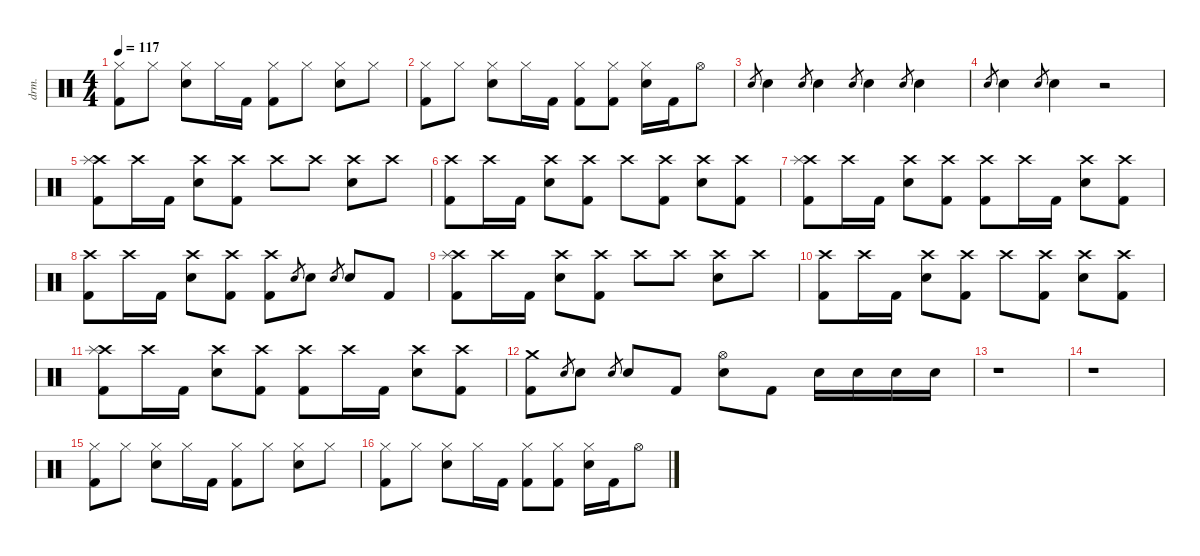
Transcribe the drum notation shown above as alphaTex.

\defaultSystemsLayout 4
\hideDynamics
\bracketExtendMode nobrackets
\track ("Drums" "drm.") {instrument percussion}
\staff {score}
\articulation defaults
\ts (4 4)
\tempo 117
\clef neutral
\ks c
("Hi-Hat (closed)" "Kick (hit) 2").8{dy mf beam Down} "Hi-Hat (closed)".8{beam Down} ("Hi-Hat (closed)" "Snare (hit) 2").8{beam Down} "Hi-Hat (closed)".16{beam Down} "Kick (hit) 2".16{beam Down} ("Hi-Hat (closed)" "Kick (hit) 2").8{beam Down} "Hi-Hat (closed)".8{beam Down} ("Hi-Hat (closed)" "Snare (hit) 2").8{beam Down} "Hi-Hat (closed)".8{beam Down} |
("Hi-Hat (closed)" "Kick (hit) 2").8{beam Down} "Hi-Hat (closed)".8{beam Down} ("Hi-Hat (closed)" "Snare (hit) 2").8{beam Down} "Hi-Hat (closed)".16{beam Down} "Kick (hit) 2".16{beam Down} ("Hi-Hat (closed)" "Kick (hit) 2").8{beam Down} ("Hi-Hat (closed)" "Kick (hit) 2").8{beam Down} ("Hi-Hat (closed)" "Snare (hit) 2").16{beam Down} "Kick (hit) 2".16{beam Down} "Hi-Hat (open)".8{beam Down} |
"Snare (hit) 2".8{gr beam Up} "Snare (hit) 2".4{beam Down} "Snare (hit) 2".8{gr beam Up} "Snare (hit) 2".4{beam Down} "Snare (hit) 2".8{gr beam Up} "Snare (hit) 2".4{beam Down} "Snare (hit) 2".8{gr beam Up} "Snare (hit) 2".4{beam Down} |
"Snare (hit) 2".8{gr beam Up} "Snare (hit) 2".4{beam Down} "Snare (hit) 2".8{gr beam Up} "Snare (hit) 2".4{beam Down} r.2{beam Down} |
("Kick (hit) 2" "Crash high (hit)" "Splash (hit)").8{beam Down} "Crash high (hit)".16{beam Down} "Kick (hit) 2".16{beam Down} ("Snare (hit) 2" "Crash high (hit)").8{beam Down} ("Kick (hit) 2" "Crash high (hit)").8{beam Down} "Crash high (hit)".8{beam Down} "Crash high (hit)".8{beam Down} ("Snare (hit) 2" "Crash high (hit)").8{beam Down} "Crash high (hit)".8{beam Down} |
("Kick (hit) 2" "Crash high (hit)").8{beam Down} "Crash high (hit)".16{beam Down} "Kick (hit) 2".16{beam Down} ("Snare (hit) 2" "Crash high (hit)").8{beam Down} ("Kick (hit) 2" "Crash high (hit)").8{beam Down} "Crash high (hit)".8{beam Down} ("Kick (hit) 2" "Crash high (hit)").8{beam Down} ("Snare (hit) 2" "Crash high (hit)").8{beam Down} ("Kick (hit) 2" "Crash high (hit)").8{beam Down} |
("Kick (hit) 2" "Crash high (hit)" "Splash (hit)").8{beam Down} "Crash high (hit)".16{beam Down} "Kick (hit) 2".16{beam Down} ("Snare (hit) 2" "Crash high (hit)").8{beam Down} ("Kick (hit) 2" "Crash high (hit)").8{beam Down} ("Kick (hit) 2" "Crash high (hit)").8{beam Down} "Crash high (hit)".16{beam Down} "Kick (hit) 2".16{beam Down} ("Snare (hit) 2" "Crash high (hit)").8{beam Down} ("Kick (hit) 2" "Crash high (hit)").8{beam Down} |
("Kick (hit) 2" "Crash high (hit)").8{beam Down} "Crash high (hit)".16{beam Down} "Kick (hit) 2".16{beam Down} ("Snare (hit) 2" "Crash high (hit)").8{beam Down} ("Kick (hit) 2" "Crash high (hit)").8{beam Down} ("Kick (hit) 2" "Crash high (hit)").8{beam Down} "Snare (hit) 2".8{gr beam Up} "Snare (hit) 2".8{beam Down} "Snare (hit) 2".8{gr beam Up} "Snare (hit) 2".8{beam Up} "Kick (hit) 2".8{beam Up} |
("Kick (hit) 2" "Crash high (hit)" "Splash (hit)").8{beam Down} "Crash high (hit)".16{beam Down} "Kick (hit) 2".16{beam Down} ("Snare (hit) 2" "Crash high (hit)").8{beam Down} ("Kick (hit) 2" "Crash high (hit)").8{beam Down} "Crash high (hit)".8{beam Down} "Crash high (hit)".8{beam Down} ("Snare (hit) 2" "Crash high (hit)").8{beam Down} "Crash high (hit)".8{beam Down} |
("Kick (hit) 2" "Crash high (hit)").8{beam Down} "Crash high (hit)".16{beam Down} "Kick (hit) 2".16{beam Down} ("Snare (hit) 2" "Crash high (hit)").8{beam Down} ("Kick (hit) 2" "Crash high (hit)").8{beam Down} "Crash high (hit)".8{beam Down} ("Kick (hit) 2" "Crash high (hit)").8{beam Down} ("Snare (hit) 2" "Crash high (hit)").8{beam Down} ("Kick (hit) 2" "Crash high (hit)").8{beam Down} |
("Kick (hit) 2" "Crash high (hit)" "Splash (hit)").8{beam Down} "Crash high (hit)".16{beam Down} "Kick (hit) 2".16{beam Down} ("Snare (hit) 2" "Crash high (hit)").8{beam Down} ("Kick (hit) 2" "Crash high (hit)").8{beam Down} ("Kick (hit) 2" "Crash high (hit)").8{beam Down} "Crash high (hit)".16{beam Down} "Kick (hit) 2".16{beam Down} ("Snare (hit) 2" "Crash high (hit)").8{beam Down} ("Kick (hit) 2" "Crash high (hit)").8{beam Down} |
("Kick (hit) 2" "Crash medium (hit)").8{beam Down} "Snare (hit) 2".8{gr beam Up} "Snare (hit) 2".8{beam Down} "Snare (hit) 2".8{gr beam Up} "Snare (hit) 2".8{beam Up} "Kick (hit) 2".8{beam Up} ("Hi-Hat (open)" "Snare (hit) 2").8{beam Down} "Kick (hit) 2".8{beam Down} "Snare (hit) 2".16{beam Down} "Snare (hit) 2".16{beam Down} "Snare (hit) 2".16{beam Down} "Snare (hit) 2".16{beam Down} |
r.1{beam Down} |
r.1{beam Down} |
("Hi-Hat (closed)" "Kick (hit) 2").8{beam Down} "Hi-Hat (closed)".8{beam Down} ("Hi-Hat (closed)" "Snare (hit) 2").8{beam Down} "Hi-Hat (closed)".16{beam Down} "Kick (hit) 2".16{beam Down} ("Hi-Hat (closed)" "Kick (hit) 2").8{beam Down} "Hi-Hat (closed)".8{beam Down} ("Hi-Hat (closed)" "Snare (hit) 2").8{beam Down} "Hi-Hat (closed)".8{beam Down} |
("Hi-Hat (closed)" "Kick (hit) 2").8{beam Down} "Hi-Hat (closed)".8{beam Down} ("Hi-Hat (closed)" "Snare (hit) 2").8{beam Down} "Hi-Hat (closed)".16{beam Down} "Kick (hit) 2".16{beam Down} ("Hi-Hat (closed)" "Kick (hit) 2").8{beam Down} ("Hi-Hat (closed)" "Kick (hit) 2").8{beam Down} ("Hi-Hat (closed)" "Snare (hit) 2").16{beam Down} "Kick (hit) 2".16{beam Down} "Hi-Hat (open)".8{beam Down}
